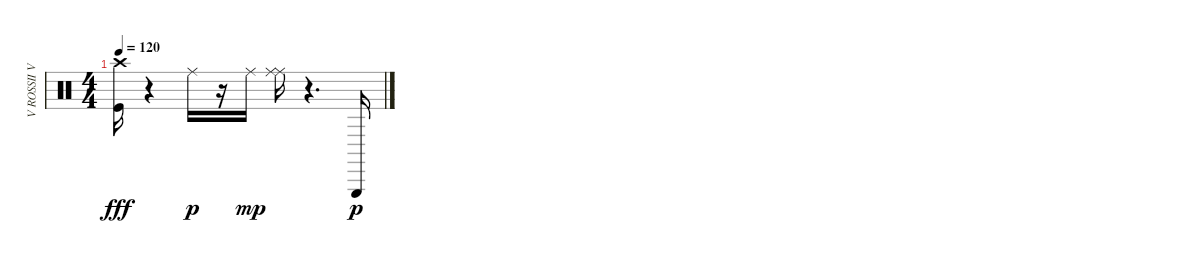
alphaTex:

\track ("V ROSSII VECHERA     " "V ROSSII V") {instrument percussion}
\staff {score}
\articulation defaults
\ts (4 4)
\tempo 120
\clef neutral
\ks c
("Crash high (hit)" "Kick (hit)").16{dy fff} r.4 "Ride (middle)".16{dy p} r.16 "Ride (middle)".16{dy mp} ("Ride (middle)" "Ride (middle)").16 r.4{d} "Triangle (hit)".16{dy p}
